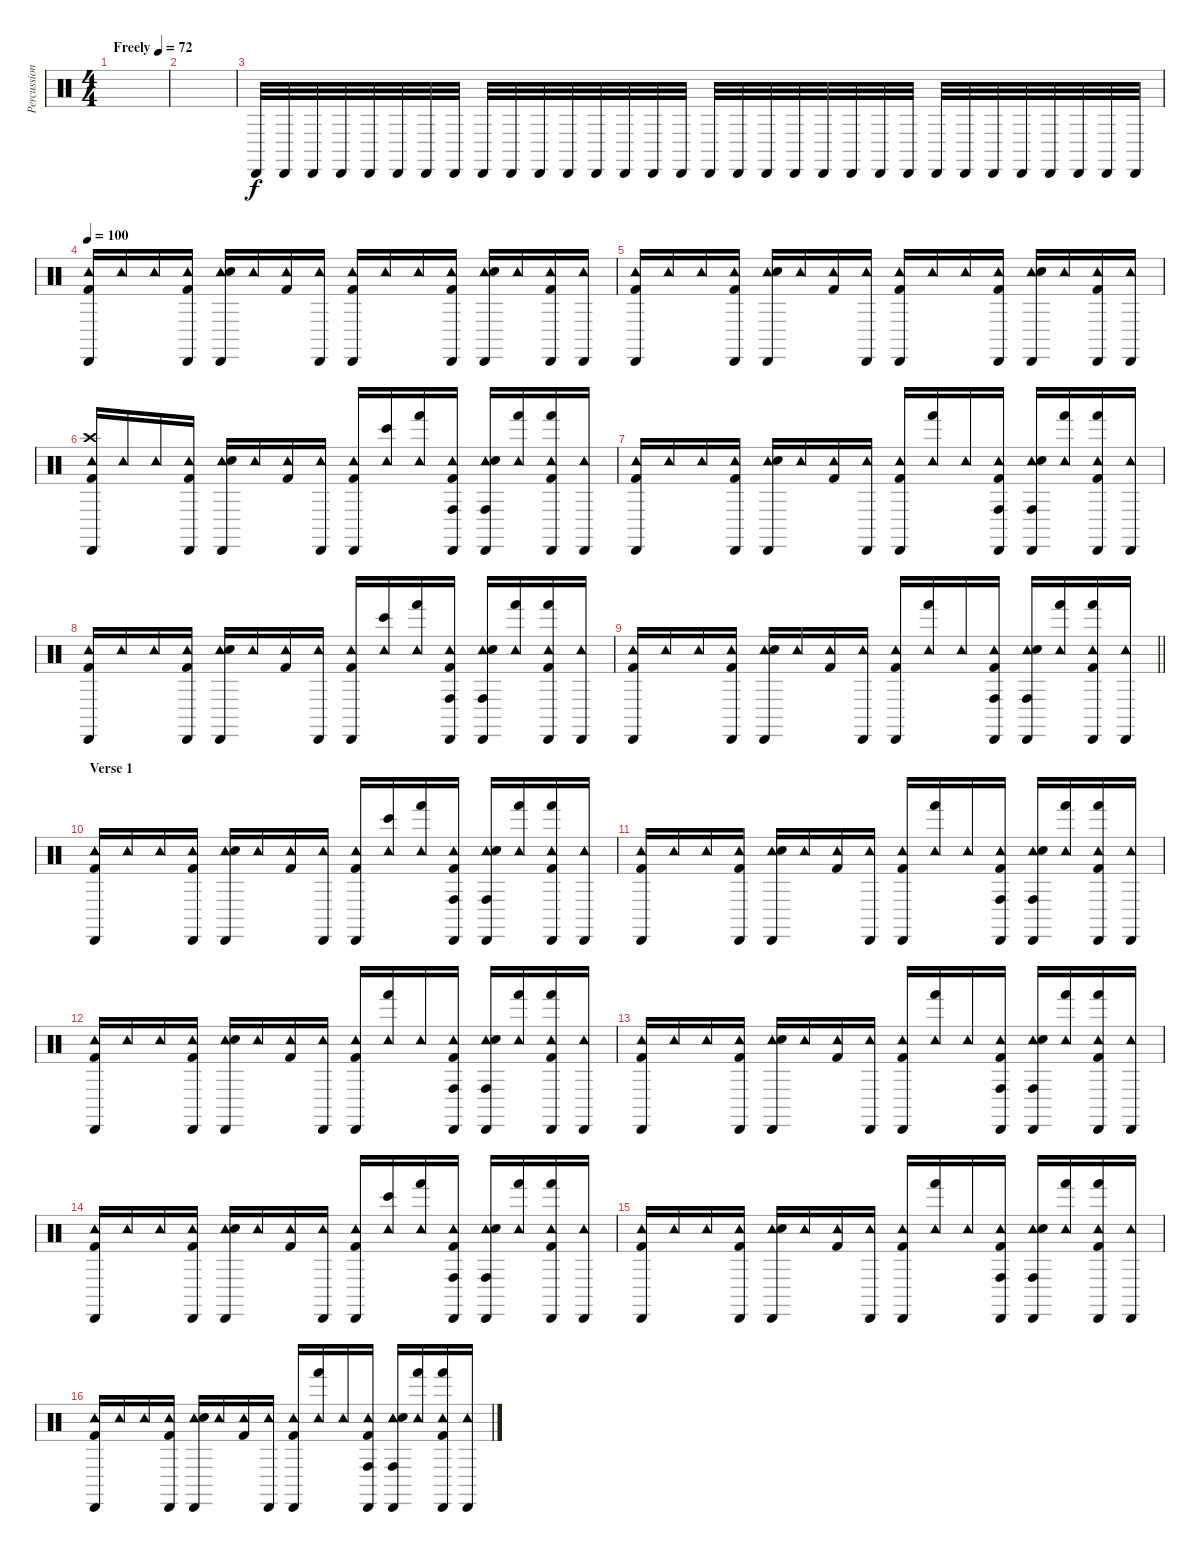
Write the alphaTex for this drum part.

\track ("Percussion" "Percussion") {instrument percussion}
\staff {score}
\articulation defaults
\ts (4 4)
\tempo (72 "Freely")
\clef neutral
\ks c
|
|
"Cabasa (hit)".32 "Cabasa (hit)".32 "Cabasa (hit)".32 "Cabasa (hit)".32 "Cabasa (hit)".32 "Cabasa (hit)".32 "Cabasa (hit)".32 "Cabasa (hit)".32 "Cabasa (hit)".32 "Cabasa (hit)".32 "Cabasa (hit)".32 "Cabasa (hit)".32 "Cabasa (hit)".32 "Cabasa (hit)".32 "Cabasa (hit)".32 "Cabasa (hit)".32 "Cabasa (hit)".32 "Cabasa (hit)".32 "Cabasa (hit)".32 "Cabasa (hit)".32 "Cabasa (hit)".32 "Cabasa (hit)".32 "Cabasa (hit)".32 "Cabasa (hit)".32 "Cabasa (hit)".32 "Cabasa (hit)".32 "Cabasa (hit)".32 "Cabasa (hit)".32 "Cabasa (hit)".32 "Cabasa (hit)".32 "Cabasa (hit)".32 "Cabasa (hit)".32 |
\tempo 100
("Tambourine (hit)" "Cabasa (hit)" "Kick (hit) 2").16 "Tambourine (hit)".16 "Tambourine (hit)".16 ("Tambourine (hit)" "Cabasa (hit)" "Kick (hit) 2").16 ("Tambourine (hit)" "Cabasa (hit)" "Snare (hit) 2").16 "Tambourine (hit)".16 ("Tambourine (hit)" "Kick (hit) 2").16 ("Tambourine (hit)" "Cabasa (hit)").16 ("Tambourine (hit)" "Cabasa (hit)" "Kick (hit) 2").16 "Tambourine (hit)".16 "Tambourine (hit)".16 ("Tambourine (hit)" "Cabasa (hit)" "Kick (hit) 2").16 ("Tambourine (hit)" "Cabasa (hit)" "Snare (hit) 2").16 "Tambourine (hit)".16 ("Tambourine (hit)" "Cabasa (hit)" "Kick (hit) 2").16 ("Tambourine (hit)" "Cabasa (hit)").16 |
("Tambourine (hit)" "Cabasa (hit)" "Kick (hit) 2").16 "Tambourine (hit)".16 "Tambourine (hit)".16 ("Tambourine (hit)" "Cabasa (hit)" "Kick (hit) 2").16 ("Tambourine (hit)" "Cabasa (hit)" "Snare (hit) 2").16 "Tambourine (hit)".16 ("Tambourine (hit)" "Kick (hit) 2").16 ("Tambourine (hit)" "Cabasa (hit)").16 ("Tambourine (hit)" "Cabasa (hit)" "Kick (hit) 2").16 "Tambourine (hit)".16 "Tambourine (hit)".16 ("Tambourine (hit)" "Cabasa (hit)" "Kick (hit) 2").16 ("Tambourine (hit)" "Cabasa (hit)" "Snare (hit) 2").16 "Tambourine (hit)".16 ("Tambourine (hit)" "Cabasa (hit)" "Kick (hit) 2").16 ("Tambourine (hit)" "Cabasa (hit)").16 |
("Tambourine (hit)" "Cabasa (hit)" "Crash high (hit)" "Kick (hit) 2").16 "Tambourine (hit)".16 "Tambourine (hit)".16 ("Tambourine (hit)" "Cabasa (hit)" "Kick (hit) 2").16 ("Tambourine (hit)" "Cabasa (hit)" "Snare (hit) 2").16 "Tambourine (hit)".16 ("Tambourine (hit)" "Kick (hit) 2").16 ("Tambourine (hit)" "Cabasa (hit)").16 ("Tambourine (hit)" "Cabasa (hit)" "Kick (hit) 2").16 ("Tambourine (hit)" "Bongo High (hit)").16 ("Tambourine (hit)" "Hand (hit)").16 ("Tambourine (hit)" "Cabasa (hit)" "Conga high (hit)" "Kick (hit) 2").16 ("Tambourine (hit)" "Cabasa (hit)" "Conga high (hit)" "Snare (hit) 2").16 ("Tambourine (hit)" "Hand (hit)").16 ("Tambourine (hit)" "Cabasa (hit)" "Hand (hit)" "Kick (hit) 2").16 ("Tambourine (hit)" "Cabasa (hit)").16 |
("Tambourine (hit)" "Cabasa (hit)" "Kick (hit) 2").16 "Tambourine (hit)".16 "Tambourine (hit)".16 ("Tambourine (hit)" "Cabasa (hit)" "Kick (hit) 2").16 ("Tambourine (hit)" "Cabasa (hit)" "Snare (hit) 2").16 "Tambourine (hit)".16 ("Tambourine (hit)" "Kick (hit) 2").16 ("Tambourine (hit)" "Cabasa (hit)").16 ("Tambourine (hit)" "Cabasa (hit)" "Kick (hit) 2").16 ("Tambourine (hit)" "Hand (hit)").16 "Tambourine (hit)".16 ("Tambourine (hit)" "Cabasa (hit)" "Conga high (hit)" "Kick (hit) 2").16 ("Tambourine (hit)" "Cabasa (hit)" "Conga high (hit)" "Snare (hit) 2").16 ("Tambourine (hit)" "Hand (hit)").16 ("Tambourine (hit)" "Cabasa (hit)" "Hand (hit)" "Kick (hit) 2").16 ("Tambourine (hit)" "Cabasa (hit)").16 |
("Tambourine (hit)" "Cabasa (hit)" "Kick (hit) 2").16 "Tambourine (hit)".16 "Tambourine (hit)".16 ("Tambourine (hit)" "Cabasa (hit)" "Kick (hit) 2").16 ("Tambourine (hit)" "Cabasa (hit)" "Snare (hit) 2").16 "Tambourine (hit)".16 ("Tambourine (hit)" "Kick (hit) 2").16 ("Tambourine (hit)" "Cabasa (hit)").16 ("Tambourine (hit)" "Cabasa (hit)" "Kick (hit) 2").16 ("Tambourine (hit)" "Bongo High (hit)").16 ("Tambourine (hit)" "Hand (hit)").16 ("Tambourine (hit)" "Cabasa (hit)" "Conga high (hit)" "Kick (hit) 2").16 ("Tambourine (hit)" "Cabasa (hit)" "Conga high (hit)" "Snare (hit) 2").16 ("Tambourine (hit)" "Hand (hit)").16 ("Tambourine (hit)" "Cabasa (hit)" "Hand (hit)" "Kick (hit) 2").16 ("Tambourine (hit)" "Cabasa (hit)").16 |
\barLineRight lightlight
("Tambourine (hit)" "Cabasa (hit)" "Kick (hit) 2").16 "Tambourine (hit)".16 "Tambourine (hit)".16 ("Tambourine (hit)" "Cabasa (hit)" "Kick (hit) 2").16 ("Tambourine (hit)" "Cabasa (hit)" "Snare (hit) 2").16 "Tambourine (hit)".16 ("Tambourine (hit)" "Kick (hit) 2").16 ("Tambourine (hit)" "Cabasa (hit)").16 ("Tambourine (hit)" "Cabasa (hit)" "Kick (hit) 2").16 ("Tambourine (hit)" "Hand (hit)").16 "Tambourine (hit)".16 ("Tambourine (hit)" "Cabasa (hit)" "Conga high (hit)" "Kick (hit) 2").16 ("Tambourine (hit)" "Cabasa (hit)" "Conga high (hit)" "Snare (hit) 2").16 ("Tambourine (hit)" "Hand (hit)").16 ("Tambourine (hit)" "Cabasa (hit)" "Hand (hit)" "Kick (hit) 2").16 ("Tambourine (hit)" "Cabasa (hit)").16 |
\section ("" "Verse 1")
("Tambourine (hit)" "Cabasa (hit)" "Kick (hit) 2").16 "Tambourine (hit)".16 "Tambourine (hit)".16 ("Tambourine (hit)" "Cabasa (hit)" "Kick (hit) 2").16 ("Tambourine (hit)" "Cabasa (hit)" "Snare (hit) 2").16 "Tambourine (hit)".16 ("Tambourine (hit)" "Kick (hit) 2").16 ("Tambourine (hit)" "Cabasa (hit)").16 ("Tambourine (hit)" "Cabasa (hit)" "Kick (hit) 2").16 ("Tambourine (hit)" "Bongo High (hit)").16 ("Tambourine (hit)" "Hand (hit)").16 ("Tambourine (hit)" "Cabasa (hit)" "Conga high (hit)" "Kick (hit) 2").16 ("Tambourine (hit)" "Cabasa (hit)" "Conga high (hit)" "Snare (hit) 2").16 ("Tambourine (hit)" "Hand (hit)").16 ("Tambourine (hit)" "Cabasa (hit)" "Hand (hit)" "Kick (hit) 2").16 ("Tambourine (hit)" "Cabasa (hit)").16 |
("Tambourine (hit)" "Cabasa (hit)" "Kick (hit) 2").16 "Tambourine (hit)".16 "Tambourine (hit)".16 ("Tambourine (hit)" "Cabasa (hit)" "Kick (hit) 2").16 ("Tambourine (hit)" "Cabasa (hit)" "Snare (hit) 2").16 "Tambourine (hit)".16 ("Tambourine (hit)" "Kick (hit) 2").16 ("Tambourine (hit)" "Cabasa (hit)").16 ("Tambourine (hit)" "Cabasa (hit)" "Kick (hit) 2").16 ("Tambourine (hit)" "Hand (hit)").16 "Tambourine (hit)".16 ("Tambourine (hit)" "Cabasa (hit)" "Conga high (hit)" "Kick (hit) 2").16 ("Tambourine (hit)" "Cabasa (hit)" "Conga high (hit)" "Snare (hit) 2").16 ("Tambourine (hit)" "Hand (hit)").16 ("Tambourine (hit)" "Cabasa (hit)" "Hand (hit)" "Kick (hit) 2").16 ("Tambourine (hit)" "Cabasa (hit)").16 |
("Tambourine (hit)" "Cabasa (hit)" "Kick (hit) 2").16 "Tambourine (hit)".16 "Tambourine (hit)".16 ("Tambourine (hit)" "Cabasa (hit)" "Kick (hit) 2").16 ("Tambourine (hit)" "Cabasa (hit)" "Snare (hit) 2").16 "Tambourine (hit)".16 ("Tambourine (hit)" "Kick (hit) 2").16 ("Tambourine (hit)" "Cabasa (hit)").16 ("Tambourine (hit)" "Cabasa (hit)" "Kick (hit) 2").16 ("Tambourine (hit)" "Hand (hit)").16 "Tambourine (hit)".16 ("Tambourine (hit)" "Cabasa (hit)" "Conga high (hit)" "Kick (hit) 2").16 ("Tambourine (hit)" "Cabasa (hit)" "Conga high (hit)" "Snare (hit) 2").16 ("Tambourine (hit)" "Hand (hit)").16 ("Tambourine (hit)" "Cabasa (hit)" "Hand (hit)" "Kick (hit) 2").16 ("Tambourine (hit)" "Cabasa (hit)").16 |
("Tambourine (hit)" "Cabasa (hit)" "Kick (hit) 2").16 "Tambourine (hit)".16 "Tambourine (hit)".16 ("Tambourine (hit)" "Cabasa (hit)" "Kick (hit) 2").16 ("Tambourine (hit)" "Cabasa (hit)" "Snare (hit) 2").16 "Tambourine (hit)".16 ("Tambourine (hit)" "Kick (hit) 2").16 ("Tambourine (hit)" "Cabasa (hit)").16 ("Tambourine (hit)" "Cabasa (hit)" "Kick (hit) 2").16 ("Tambourine (hit)" "Hand (hit)").16 "Tambourine (hit)".16 ("Tambourine (hit)" "Cabasa (hit)" "Conga high (hit)" "Kick (hit) 2").16 ("Tambourine (hit)" "Cabasa (hit)" "Conga high (hit)" "Snare (hit) 2").16 ("Tambourine (hit)" "Hand (hit)").16 ("Tambourine (hit)" "Cabasa (hit)" "Hand (hit)" "Kick (hit) 2").16 ("Tambourine (hit)" "Cabasa (hit)").16 |
("Tambourine (hit)" "Cabasa (hit)" "Kick (hit) 2").16 "Tambourine (hit)".16 "Tambourine (hit)".16 ("Tambourine (hit)" "Cabasa (hit)" "Kick (hit) 2").16 ("Tambourine (hit)" "Cabasa (hit)" "Snare (hit) 2").16 "Tambourine (hit)".16 ("Tambourine (hit)" "Kick (hit) 2").16 ("Tambourine (hit)" "Cabasa (hit)").16 ("Tambourine (hit)" "Cabasa (hit)" "Kick (hit) 2").16 ("Tambourine (hit)" "Bongo High (hit)").16 ("Tambourine (hit)" "Hand (hit)").16 ("Tambourine (hit)" "Cabasa (hit)" "Conga high (hit)" "Kick (hit) 2").16 ("Tambourine (hit)" "Cabasa (hit)" "Conga high (hit)" "Snare (hit) 2").16 ("Tambourine (hit)" "Hand (hit)").16 ("Tambourine (hit)" "Cabasa (hit)" "Hand (hit)" "Kick (hit) 2").16 ("Tambourine (hit)" "Cabasa (hit)").16 |
("Tambourine (hit)" "Cabasa (hit)" "Kick (hit) 2").16 "Tambourine (hit)".16 "Tambourine (hit)".16 ("Tambourine (hit)" "Cabasa (hit)" "Kick (hit) 2").16 ("Tambourine (hit)" "Cabasa (hit)" "Snare (hit) 2").16 "Tambourine (hit)".16 ("Tambourine (hit)" "Kick (hit) 2").16 ("Tambourine (hit)" "Cabasa (hit)").16 ("Tambourine (hit)" "Cabasa (hit)" "Kick (hit) 2").16 ("Tambourine (hit)" "Hand (hit)").16 "Tambourine (hit)".16 ("Tambourine (hit)" "Cabasa (hit)" "Conga high (hit)" "Kick (hit) 2").16 ("Tambourine (hit)" "Cabasa (hit)" "Conga high (hit)" "Snare (hit) 2").16 ("Tambourine (hit)" "Hand (hit)").16 ("Tambourine (hit)" "Cabasa (hit)" "Hand (hit)" "Kick (hit) 2").16 ("Tambourine (hit)" "Cabasa (hit)").16 |
("Tambourine (hit)" "Cabasa (hit)" "Kick (hit) 2").16 "Tambourine (hit)".16 "Tambourine (hit)".16 ("Tambourine (hit)" "Cabasa (hit)" "Kick (hit) 2").16 ("Tambourine (hit)" "Cabasa (hit)" "Snare (hit) 2").16 "Tambourine (hit)".16 ("Tambourine (hit)" "Kick (hit) 2").16 ("Tambourine (hit)" "Cabasa (hit)").16 ("Tambourine (hit)" "Cabasa (hit)" "Kick (hit) 2").16 ("Tambourine (hit)" "Hand (hit)").16 "Tambourine (hit)".16 ("Tambourine (hit)" "Cabasa (hit)" "Conga high (hit)" "Kick (hit) 2").16 ("Tambourine (hit)" "Cabasa (hit)" "Conga high (hit)" "Snare (hit) 2").16 ("Tambourine (hit)" "Hand (hit)").16 ("Tambourine (hit)" "Cabasa (hit)" "Hand (hit)" "Kick (hit) 2").16 ("Tambourine (hit)" "Cabasa (hit)").16
